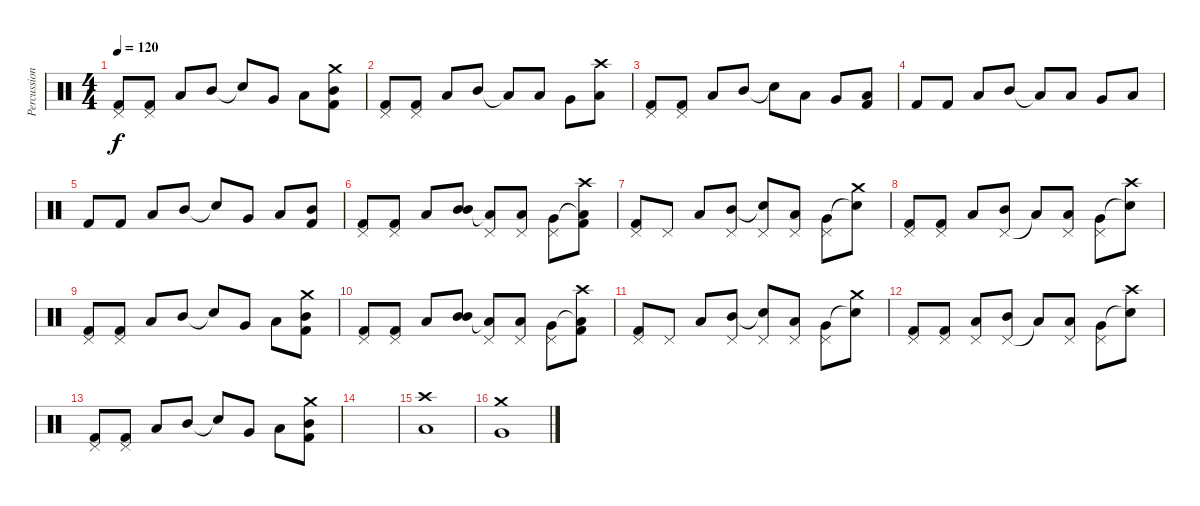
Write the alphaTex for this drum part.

\track ("Percussion" "Percussion") {instrument percussion}
\staff {score}
\articulation defaults
\ts (4 4)
\tempo 120
\clef neutral
\ks c
("Pedal Hi-Hat (hit)" "Kick (hit) 2").8{dy f} ("Pedal Hi-Hat (hit)" "Kick (hit) 2").8 "Low Tom (hit)".8 "Mid Tom (hit)".8 "Snare (hit)"{t}.8 "Very Low Tom (hit)".8 "Low Tom (hit)".8 ("Crash medium (hit)" "Mid Tom (hit)" "Kick (hit) 2").8 |
("Pedal Hi-Hat (hit)" "Kick (hit) 2").8 ("Pedal Hi-Hat (hit)" "Kick (hit) 2").8 "Low Tom (hit)".8 "Mid Tom (hit)".8 "Low Tom (hit)"{t}.8 "Low Tom (hit)".8 "Very Low Tom (hit)".8 ("Crash high (hit)" "Low Tom (hit)").8 |
("Pedal Hi-Hat (hit)" "Kick (hit) 2").8 ("Pedal Hi-Hat (hit)" "Kick (hit) 2").8 "Low Tom (hit)".8 "Mid Tom (hit)".8 "Snare (hit)"{t}.8 "Low Tom (hit)".8 "Very Low Tom (hit)".8 ("Low Tom (hit)" "Kick (hit) 2").8 |
"Kick (hit) 2".8 "Kick (hit) 2".8 "Low Tom (hit)".8 "Mid Tom (hit)".8 "Low Tom (hit)"{t}.8 "Low Tom (hit)".8 "Very Low Tom (hit)".8 "Low Tom (hit)".8 |
"Kick (hit) 2".8 "Kick (hit) 2".8 "Low Tom (hit)".8 "Mid Tom (hit)".8 "Snare (hit)"{t}.8 "Very Low Tom (hit)".8 "Low Tom (hit)".8 ("Mid Tom (hit)" "Kick (hit) 2").8 |
("Pedal Hi-Hat (hit)" "Kick (hit) 2").8 ("Pedal Hi-Hat (hit)" "Kick (hit) 2").8 "Low Tom (hit)".8 ("Mid Tom (hit)" "Mid Tom (hit)").8 ("Pedal Hi-Hat (hit)" "Low Tom (hit)"{t}).8 ("Pedal Hi-Hat (hit)" "Low Tom (hit)").8 ("Pedal Hi-Hat (hit)" "Very Low Tom (hit)").8 ("Crash high (hit)" "Low Tom (hit)"{t} "Kick (hit) 2").8 |
("Pedal Hi-Hat (hit)" "Kick (hit) 2").8 "Pedal Hi-Hat (hit)".8 "Low Tom (hit)".8 ("Pedal Hi-Hat (hit)" "Mid Tom (hit)").8 ("Pedal Hi-Hat (hit)" "Snare (hit)"{t}).8 ("Pedal Hi-Hat (hit)" "Low Tom (hit)").8 ("Pedal Hi-Hat (hit)" "Very Low Tom (hit)").8 ("Crash medium (hit)" "Snare (hit)"{t}).8 |
("Pedal Hi-Hat (hit)" "Kick (hit) 2").8 ("Pedal Hi-Hat (hit)" "Kick (hit) 2").8 "Low Tom (hit)".8 ("Pedal Hi-Hat (hit)" "Mid Tom (hit)").8 "Low Tom (hit)"{t}.8 ("Pedal Hi-Hat (hit)" "Low Tom (hit)").8 ("Pedal Hi-Hat (hit)" "Very Low Tom (hit)").8 ("Crash high (hit)" "Snare (hit)"{t}).8 |
("Pedal Hi-Hat (hit)" "Kick (hit) 2").8 ("Pedal Hi-Hat (hit)" "Kick (hit) 2").8 "Low Tom (hit)".8 "Mid Tom (hit)".8 "Snare (hit)"{t}.8 "Very Low Tom (hit)".8 "Low Tom (hit)".8 ("Crash medium (hit)" "Mid Tom (hit)" "Kick (hit) 2").8 |
("Pedal Hi-Hat (hit)" "Kick (hit) 2").8 ("Pedal Hi-Hat (hit)" "Kick (hit) 2").8 "Low Tom (hit)".8 ("Mid Tom (hit)" "Mid Tom (hit)").8 ("Pedal Hi-Hat (hit)" "Low Tom (hit)"{t}).8 ("Pedal Hi-Hat (hit)" "Low Tom (hit)").8 ("Pedal Hi-Hat (hit)" "Very Low Tom (hit)").8 ("Crash high (hit)" "Low Tom (hit)"{t} "Kick (hit) 2").8 |
("Pedal Hi-Hat (hit)" "Kick (hit) 2").8 "Pedal Hi-Hat (hit)".8 "Low Tom (hit)".8 ("Pedal Hi-Hat (hit)" "Mid Tom (hit)").8 ("Pedal Hi-Hat (hit)" "Snare (hit)"{t}).8 ("Pedal Hi-Hat (hit)" "Low Tom (hit)").8 ("Pedal Hi-Hat (hit)" "Very Low Tom (hit)").8 ("Crash medium (hit)" "Snare (hit)"{t}).8 |
("Pedal Hi-Hat (hit)" "Kick (hit) 2").8 ("Pedal Hi-Hat (hit)" "Kick (hit) 2").8 ("Pedal Hi-Hat (hit)" "Low Tom (hit)").8 ("Pedal Hi-Hat (hit)" "Mid Tom (hit)").8 "Low Tom (hit)"{t}.8 ("Pedal Hi-Hat (hit)" "Low Tom (hit)").8 ("Pedal Hi-Hat (hit)" "Very Low Tom (hit)").8 ("Crash high (hit)" "Snare (hit)"{t}).8 |
("Pedal Hi-Hat (hit)" "Kick (hit) 2").8 ("Pedal Hi-Hat (hit)" "Kick (hit) 2").8 "Low Tom (hit)".8 "Mid Tom (hit)".8 "Snare (hit)"{t}.8 "Very Low Tom (hit)".8 "Low Tom (hit)".8 ("Crash medium (hit)" "Mid Tom (hit)" "Kick (hit) 2").8 |
|
("Crash high (hit)" "Low Tom (hit)").1 |
("Very Low Tom (hit)" "Crash medium (hit)").1
